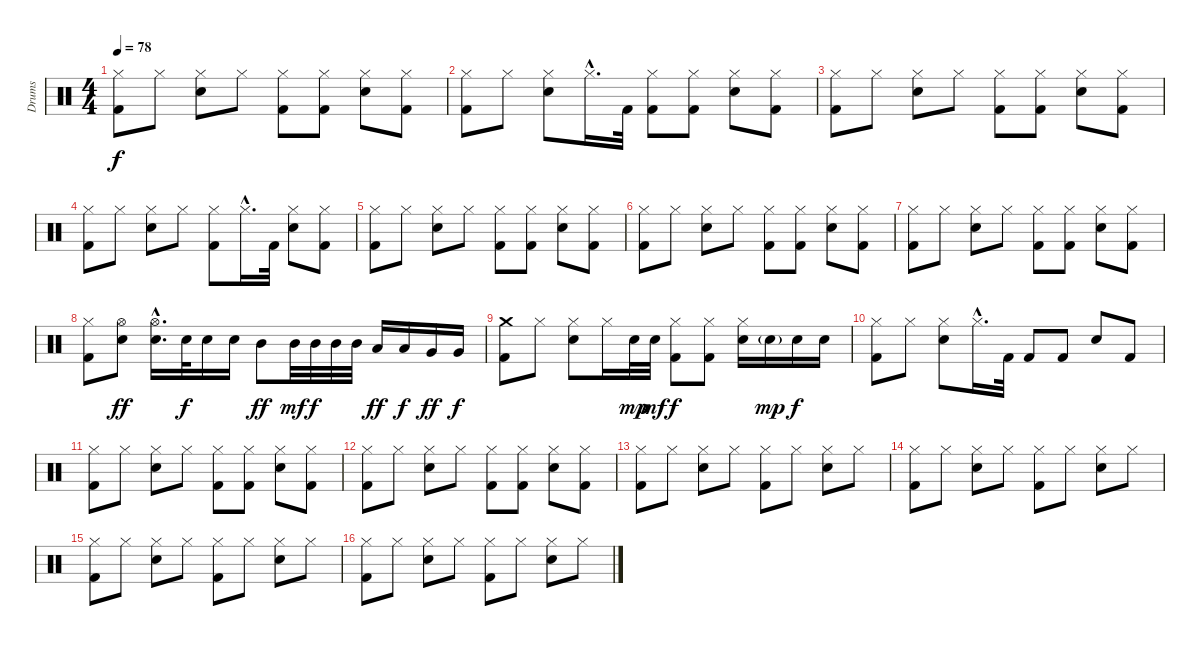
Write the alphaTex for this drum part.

\track ("Drums" "Drums") {instrument percussion}
\staff {score}
\articulation defaults
\ts (4 4)
\tempo 78
\clef neutral
\ks c
("Hi-Hat (closed)" "Kick (hit) 2").8{dy f} "Hi-Hat (closed)".8 ("Hi-Hat (closed)" "Electric Snare (hit)").8 "Hi-Hat (closed)".8 ("Hi-Hat (closed)" "Kick (hit) 2").8 ("Hi-Hat (closed)" "Kick (hit) 2").8 ("Hi-Hat (closed)" "Electric Snare (hit)").8 ("Hi-Hat (closed)" "Kick (hit) 2").8 |
("Hi-Hat (closed)" "Kick (hit) 2").8 "Hi-Hat (closed)".8 ("Hi-Hat (closed)" "Electric Snare (hit)").8 "Hi-Hat (closed)"{hac}.16{d} "Kick (hit) 2".32 ("Hi-Hat (closed)" "Kick (hit) 2").8 ("Hi-Hat (closed)" "Kick (hit) 2").8 ("Hi-Hat (closed)" "Electric Snare (hit)").8 ("Hi-Hat (closed)" "Kick (hit) 2").8 |
("Hi-Hat (closed)" "Kick (hit) 2").8 "Hi-Hat (closed)".8 ("Hi-Hat (closed)" "Electric Snare (hit)").8 "Hi-Hat (closed)".8 ("Hi-Hat (closed)" "Kick (hit) 2").8 ("Hi-Hat (closed)" "Kick (hit) 2").8 ("Hi-Hat (closed)" "Electric Snare (hit)").8 ("Hi-Hat (closed)" "Kick (hit) 2").8 |
("Hi-Hat (closed)" "Kick (hit) 2").8 "Hi-Hat (closed)".8 ("Hi-Hat (closed)" "Electric Snare (hit)").8 "Hi-Hat (closed)".8 ("Hi-Hat (closed)" "Kick (hit) 2").8 "Hi-Hat (closed)"{hac}.16{d} "Kick (hit) 2".32 ("Hi-Hat (closed)" "Electric Snare (hit)").8 ("Hi-Hat (closed)" "Kick (hit) 2").8 |
("Hi-Hat (closed)" "Kick (hit) 2").8 "Hi-Hat (closed)".8 ("Hi-Hat (closed)" "Electric Snare (hit)").8 "Hi-Hat (closed)".8 ("Hi-Hat (closed)" "Kick (hit) 2").8 ("Hi-Hat (closed)" "Kick (hit) 2").8 ("Hi-Hat (closed)" "Electric Snare (hit)").8 ("Hi-Hat (closed)" "Kick (hit) 2").8 |
("Hi-Hat (closed)" "Kick (hit) 2").8 "Hi-Hat (closed)".8 ("Hi-Hat (closed)" "Electric Snare (hit)").8 "Hi-Hat (closed)".8 ("Hi-Hat (closed)" "Kick (hit) 2").8 ("Hi-Hat (closed)" "Kick (hit) 2").8 ("Hi-Hat (closed)" "Electric Snare (hit)").8 ("Hi-Hat (closed)" "Kick (hit) 2").8 |
("Hi-Hat (closed)" "Kick (hit) 2").8 "Hi-Hat (closed)".8 ("Hi-Hat (closed)" "Electric Snare (hit)").8 "Hi-Hat (closed)".8 ("Hi-Hat (closed)" "Kick (hit) 2").8 ("Hi-Hat (closed)" "Kick (hit) 2").8 ("Hi-Hat (closed)" "Electric Snare (hit)").8 ("Hi-Hat (closed)" "Kick (hit) 2").8 |
("Hi-Hat (closed)" "Kick (hit) 2").8 ("Hi-Hat (open)" "Electric Snare (hit)").8{dy ff} ("Hi-Hat (open)"{hac} "Electric Snare (hit)"{hac}).16{d} "Electric Snare (hit)".32{dy f} "Electric Snare (hit)".16 "Electric Snare (hit)".16 "Mid Tom (hit)".8{dy ff} "Mid Tom (hit)".32{dy mf} "Mid Tom (hit)".32{dy f} "Mid Tom (hit)".32 "Mid Tom (hit)".32 "Low Tom (hit)".16{dy ff} "Low Tom (hit)".16{dy f} "Very Low Tom (hit)".16{dy ff} "Very Low Tom (hit)".16{dy f} |
("Crash medium (hit)" "Kick (hit) 2").8 "Hi-Hat (closed)".8 ("Hi-Hat (closed)" "Electric Snare (hit)").8 "Hi-Hat (closed)".16 "Electric Snare (hit)".32{dy mp} "Electric Snare (hit)".32{dy mf} ("Hi-Hat (closed)" "Kick (hit) 2").8{dy f} ("Hi-Hat (closed)" "Kick (hit) 2").8 ("Hi-Hat (closed)" "Electric Snare (hit)").16 "Electric Snare (hit)"{g}.16{dy mp} "Electric Snare (hit)".16{dy f} "Electric Snare (hit)".16 |
("Hi-Hat (closed)" "Kick (hit) 2").8 "Hi-Hat (closed)".8 ("Hi-Hat (closed)" "Electric Snare (hit)").8 "Hi-Hat (closed)"{hac}.16{d} "Kick (hit) 2".32 "Kick (hit) 2".8 "Kick (hit) 2".8 "Electric Snare (hit)".8 "Kick (hit) 2".8 |
("Hi-Hat (closed)" "Kick (hit) 2").8 "Hi-Hat (closed)".8 ("Hi-Hat (closed)" "Electric Snare (hit)").8 "Hi-Hat (closed)".8 ("Hi-Hat (closed)" "Kick (hit) 2").8 ("Hi-Hat (closed)" "Kick (hit) 2").8 ("Hi-Hat (closed)" "Electric Snare (hit)").8 ("Hi-Hat (closed)" "Kick (hit) 2").8 |
("Hi-Hat (closed)" "Kick (hit) 2").8 "Hi-Hat (closed)".8 ("Hi-Hat (closed)" "Electric Snare (hit)").8 "Hi-Hat (closed)".8 ("Hi-Hat (closed)" "Kick (hit) 2").8 ("Hi-Hat (closed)" "Kick (hit) 2").8 ("Hi-Hat (closed)" "Electric Snare (hit)").8 ("Hi-Hat (closed)" "Kick (hit) 2").8 |
("Hi-Hat (closed)" "Kick (hit) 2").8 "Hi-Hat (closed)".8 ("Hi-Hat (closed)" "Electric Snare (hit)").8 "Hi-Hat (closed)".8 ("Hi-Hat (closed)" "Kick (hit) 2").8 "Hi-Hat (closed)".8 ("Hi-Hat (closed)" "Electric Snare (hit)").8 "Hi-Hat (closed)".8 |
("Hi-Hat (closed)" "Kick (hit) 2").8 "Hi-Hat (closed)".8 ("Hi-Hat (closed)" "Electric Snare (hit)").8 "Hi-Hat (closed)".8 ("Hi-Hat (closed)" "Kick (hit) 2").8 "Hi-Hat (closed)".8 ("Hi-Hat (closed)" "Electric Snare (hit)").8 "Hi-Hat (closed)".8 |
("Hi-Hat (closed)" "Kick (hit) 2").8 "Hi-Hat (closed)".8 ("Hi-Hat (closed)" "Electric Snare (hit)").8 "Hi-Hat (closed)".8 ("Hi-Hat (closed)" "Kick (hit) 2").8 "Hi-Hat (closed)".8 ("Hi-Hat (closed)" "Electric Snare (hit)").8 "Hi-Hat (closed)".8 |
("Hi-Hat (closed)" "Kick (hit) 2").8 "Hi-Hat (closed)".8 ("Hi-Hat (closed)" "Electric Snare (hit)").8 "Hi-Hat (closed)".8 ("Hi-Hat (closed)" "Kick (hit) 2").8 "Hi-Hat (closed)".8 ("Hi-Hat (closed)" "Electric Snare (hit)").8 "Hi-Hat (closed)".8
